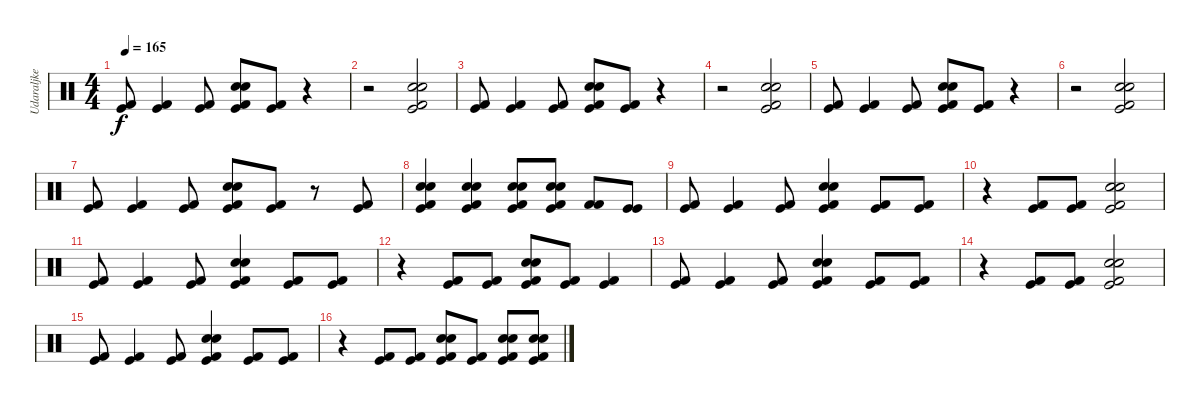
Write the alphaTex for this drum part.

\track ("Udaraljke" "Udaraljke") {instrument percussion}
\staff {score}
\articulation defaults
\ts (4 4)
\tempo 165
\clef neutral
\ks c
("Kick (hit) 2" "Kick (hit)").8{dy f} ("Kick (hit) 2" "Kick (hit)").4 ("Kick (hit) 2" "Kick (hit)").8 ("Snare (hit) 2" "Snare (hit) 2" "Kick (hit) 2" "Kick (hit)").8 ("Kick (hit) 2" "Kick (hit)").8 r.4 |
r.2 ("Snare (hit) 2" "Snare (hit) 2" "Kick (hit) 2" "Kick (hit)").2 |
("Kick (hit) 2" "Kick (hit)").8 ("Kick (hit) 2" "Kick (hit)").4 ("Kick (hit) 2" "Kick (hit)").8 ("Snare (hit) 2" "Snare (hit) 2" "Kick (hit) 2" "Kick (hit)").8 ("Kick (hit) 2" "Kick (hit)").8 r.4 |
r.2 ("Snare (hit) 2" "Snare (hit) 2" "Kick (hit) 2" "Kick (hit)").2 |
("Kick (hit) 2" "Kick (hit)").8 ("Kick (hit) 2" "Kick (hit)").4 ("Kick (hit) 2" "Kick (hit)").8 ("Snare (hit) 2" "Snare (hit) 2" "Kick (hit) 2" "Kick (hit)").8 ("Kick (hit) 2" "Kick (hit)").8 r.4 |
r.2 ("Snare (hit) 2" "Snare (hit) 2" "Kick (hit) 2" "Kick (hit)").2 |
("Kick (hit) 2" "Kick (hit)").8 ("Kick (hit) 2" "Kick (hit)").4 ("Kick (hit) 2" "Kick (hit)").8 ("Snare (hit) 2" "Snare (hit) 2" "Kick (hit) 2" "Kick (hit)").8 ("Kick (hit) 2" "Kick (hit)").8 r.8 ("Kick (hit) 2" "Kick (hit)").8 |
("Snare (hit) 2" "Snare (hit) 2" "Kick (hit) 2" "Kick (hit)").4 ("Snare (hit) 2" "Snare (hit) 2" "Kick (hit) 2" "Kick (hit)").4 ("Snare (hit) 2" "Snare (hit) 2" "Kick (hit) 2" "Kick (hit)").8 ("Snare (hit) 2" "Snare (hit) 2" "Kick (hit) 2" "Kick (hit)").8 ("Kick (hit) 2" "Kick (hit) 2").8 ("Kick (hit)" "Kick (hit)").8 |
("Kick (hit) 2" "Kick (hit)").8 ("Kick (hit) 2" "Kick (hit)").4 ("Kick (hit) 2" "Kick (hit)").8 ("Snare (hit) 2" "Snare (hit) 2" "Kick (hit) 2" "Kick (hit)").4 ("Kick (hit) 2" "Kick (hit)").8 ("Kick (hit) 2" "Kick (hit)").8 |
r.4 ("Kick (hit) 2" "Kick (hit)").8 ("Kick (hit) 2" "Kick (hit)").8 ("Snare (hit) 2" "Snare (hit) 2" "Kick (hit) 2" "Kick (hit)").2 |
("Kick (hit) 2" "Kick (hit)").8 ("Kick (hit) 2" "Kick (hit)").4 ("Kick (hit) 2" "Kick (hit)").8 ("Snare (hit) 2" "Snare (hit) 2" "Kick (hit) 2" "Kick (hit)").4 ("Kick (hit) 2" "Kick (hit)").8 ("Kick (hit) 2" "Kick (hit)").8 |
r.4 ("Kick (hit) 2" "Kick (hit)").8 ("Kick (hit) 2" "Kick (hit)").8 ("Snare (hit) 2" "Snare (hit) 2" "Kick (hit) 2" "Kick (hit)").8 ("Kick (hit) 2" "Kick (hit)").8 ("Kick (hit) 2" "Kick (hit)").4 |
("Kick (hit) 2" "Kick (hit)").8 ("Kick (hit) 2" "Kick (hit)").4 ("Kick (hit) 2" "Kick (hit)").8 ("Snare (hit) 2" "Snare (hit) 2" "Kick (hit) 2" "Kick (hit)").4 ("Kick (hit) 2" "Kick (hit)").8 ("Kick (hit) 2" "Kick (hit)").8 |
r.4 ("Kick (hit) 2" "Kick (hit)").8 ("Kick (hit) 2" "Kick (hit)").8 ("Snare (hit) 2" "Snare (hit) 2" "Kick (hit) 2" "Kick (hit)").2 |
("Kick (hit) 2" "Kick (hit)").8 ("Kick (hit) 2" "Kick (hit)").4 ("Kick (hit) 2" "Kick (hit)").8 ("Snare (hit) 2" "Snare (hit) 2" "Kick (hit) 2" "Kick (hit)").4 ("Kick (hit) 2" "Kick (hit)").8 ("Kick (hit) 2" "Kick (hit)").8 |
r.4 ("Kick (hit) 2" "Kick (hit)").8 ("Kick (hit) 2" "Kick (hit)").8 ("Snare (hit) 2" "Snare (hit) 2" "Kick (hit) 2" "Kick (hit)").8 ("Kick (hit) 2" "Kick (hit)").8 ("Snare (hit) 2" "Snare (hit) 2" "Kick (hit) 2" "Kick (hit)").8 ("Snare (hit) 2" "Snare (hit) 2" "Kick (hit) 2" "Kick (hit)").8
